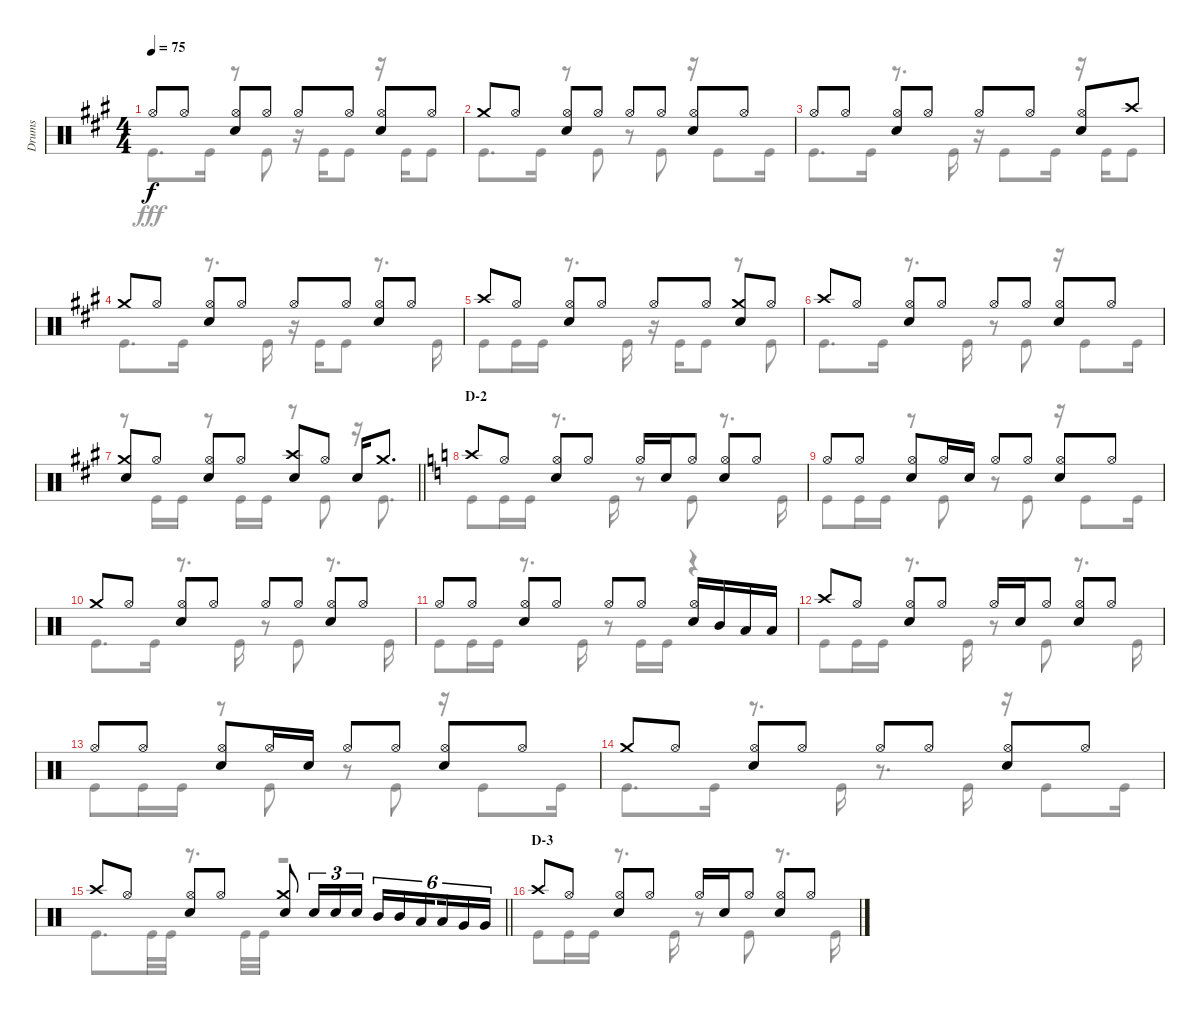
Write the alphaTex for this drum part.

\track ("Drums" "Drums") {instrument percussion}
\staff {score}
\articulation defaults
\voice
\ts (4 4)
\tempo 75
\clef neutral
\ks a "Hi-Hat (open)".8{dy f} "Hi-Hat (open)".8
("Hi-Hat (open)" "Snare (hit) 2").8 "Hi-Hat (open)".8 "Hi-Hat (open)".8 "Hi-Hat (open)".8 ("Hi-Hat (open)" "Snare (hit) 2").8 "Hi-Hat (open)".8 |
"Crash medium (hit)".8 "Hi-Hat (open)".8 ("Hi-Hat (open)" "Snare (hit) 2").8 "Hi-Hat (open)".8 "Hi-Hat (open)".8 "Hi-Hat (open)".8 ("Hi-Hat (open)" "Snare (hit) 2").8 "Hi-Hat (open)".8 |
"Hi-Hat (open)".8 "Hi-Hat (open)".8 ("Hi-Hat (open)" "Snare (hit) 2").8 "Hi-Hat (open)".8 "Hi-Hat (open)".8 "Hi-Hat (open)".8 ("Hi-Hat (open)" "Snare (hit) 2").8 "Crash high (hit)".8 |
"Crash medium (hit)".8 "Hi-Hat (open)".8 ("Hi-Hat (open)" "Snare (hit) 2").8 "Hi-Hat (open)".8 "Hi-Hat (open)".8 "Hi-Hat (open)".8 ("Hi-Hat (open)" "Snare (hit) 2").8 "Hi-Hat (open)".8 |
"Crash high (hit)".8 "Hi-Hat (open)".8 ("Hi-Hat (open)" "Snare (hit) 2").8 "Hi-Hat (open)".8 "Hi-Hat (open)".8 "Hi-Hat (open)".8 ("Crash medium (hit)" "Snare (hit) 2").8 "Hi-Hat (open)".8 |
"Crash high (hit)".8 "Hi-Hat (open)".8 ("Hi-Hat (open)" "Snare (hit) 2").8 "Hi-Hat (open)".8 "Hi-Hat (open)".8 "Hi-Hat (open)".8 ("Hi-Hat (open)" "Snare (hit) 2").8 "Hi-Hat (open)".8 |
\barLineRight lightlight
("Crash medium (hit)" "Snare (hit) 2").8 "Hi-Hat (open)".8 ("Hi-Hat (open)" "Snare (hit) 2").8 "Hi-Hat (open)".8 ("Crash high (hit)" "Snare (hit) 2").8 "Hi-Hat (open)".8 "Snare (hit) 2".16 "Crash medium (hit)".8{d} |
\section ("" "D-2")
\ks c "Crash high (hit)".8 "Hi-Hat (open)".8
("Hi-Hat (open)" "Snare (hit) 2").8 "Hi-Hat (open)".8 "Hi-Hat (open)".16 "Snare (hit) 2".16 "Hi-Hat (open)".8 ("Hi-Hat (open)" "Snare (hit) 2").8 "Hi-Hat (open)".8 |
"Hi-Hat (open)".8 "Hi-Hat (open)".8 ("Hi-Hat (open)" "Snare (hit) 2").8 "Hi-Hat (open)".16 "Snare (hit) 2".16 "Hi-Hat (open)".8 "Hi-Hat (open)".8 ("Hi-Hat (open)" "Snare (hit) 2").8 "Hi-Hat (open)".8 |
"Crash medium (hit)".8 "Hi-Hat (open)".8 ("Hi-Hat (open)" "Snare (hit) 2").8 "Hi-Hat (open)".8 "Hi-Hat (open)".8 "Hi-Hat (open)".8 ("Hi-Hat (open)" "Snare (hit) 2").8 "Hi-Hat (open)".8 |
"Hi-Hat (open)".8 "Hi-Hat (open)".8 ("Hi-Hat (open)" "Snare (hit) 2").8 "Hi-Hat (open)".8 "Hi-Hat (open)".8 "Hi-Hat (open)".8 ("Hi-Hat (open)" "Snare (hit) 2").16 "Mid Tom (hit)".16 "Low Tom (hit)".16 "Low Tom (hit)".16 |
"Crash high (hit)".8 "Hi-Hat (open)".8 ("Hi-Hat (open)" "Snare (hit) 2").8 "Hi-Hat (open)".8 "Hi-Hat (open)".16 "Snare (hit) 2".16 "Hi-Hat (open)".8 ("Hi-Hat (open)" "Snare (hit) 2").8 "Hi-Hat (open)".8 |
"Hi-Hat (open)".8 "Hi-Hat (open)".8 ("Hi-Hat (open)" "Snare (hit) 2").8 "Hi-Hat (open)".16 "Snare (hit) 2".16 "Hi-Hat (open)".8 "Hi-Hat (open)".8 ("Hi-Hat (open)" "Snare (hit) 2").8 "Hi-Hat (open)".8 |
"Crash medium (hit)".8 "Hi-Hat (open)".8 ("Hi-Hat (open)" "Snare (hit) 2").8 "Hi-Hat (open)".8 "Hi-Hat (open)".8 "Hi-Hat (open)".8 ("Hi-Hat (open)" "Snare (hit) 2").8 "Hi-Hat (open)".8 |
\barLineRight lightlight "Crash high (hit)".8 "Hi-Hat (open)".8
("Hi-Hat (open)" "Snare (hit) 2").8 "Hi-Hat (open)".8 ("Crash medium (hit)" "Snare (hit) 2").8 "Snare (hit) 2".16{tu (3 2)} "Snare (hit) 2".16{tu (3 2)} "Snare (hit) 2".16{tu (3 2)} "Mid Tom (hit)".16{tu (6 4)} "Mid Tom (hit)".16{tu (6 4)} "Low Tom (hit)".16{tu (6 4) beam splitsecondary} "Low Tom (hit)".16{tu (6 4)} "Very Low Tom (hit)".16{tu (6 4)} "Very Low Tom (hit)".16{tu (6 4)} |
\section ("" "D-3")
"Crash high (hit)".8 "Hi-Hat (open)".8 ("Hi-Hat (open)" "Snare (hit) 2").8 "Hi-Hat (open)".8 "Hi-Hat (open)".16 "Snare (hit) 2".16 "Hi-Hat (open)".8 ("Hi-Hat (open)" "Snare (hit) 2").8 "Hi-Hat (open)".8
\voice
\clef neutral
\ottava regular
\simile none
\ks a "Kick (hit)".8{d dy fff} "Kick (hit)".16
r.8 "Kick (hit)".8 r.16 "Kick (hit)".16 "Kick (hit)".8 r.16 "Kick (hit)".16 "Kick (hit)".8 |
"Kick (hit)".8{d} "Kick (hit)".16 r.8 "Kick (hit)".8 r.8 "Kick (hit)".8 r.16 "Kick (hit)".8 "Kick (hit)".16 |
"Kick (hit)".8{d} "Kick (hit)".16 r.8{d} "Kick (hit)".16 r.16 "Kick (hit)".8 "Kick (hit)".16 r.16 "Kick (hit)".16 "Kick (hit)".8 |
"Kick (hit)".8{d} "Kick (hit)".16 r.8{d} "Kick (hit)".16 r.16 "Kick (hit)".16 "Kick (hit)".8 r.8{d} "Kick (hit)".16 |
"Kick (hit)".8 "Kick (hit)".16 "Kick (hit)".16 r.8{d} "Kick (hit)".16 r.16 "Kick (hit)".16 "Kick (hit)".8 r.8 "Kick (hit)".8 |
"Kick (hit)".8{d} "Kick (hit)".16 r.8{d} "Kick (hit)".16 r.8 "Kick (hit)".8 r.16 "Kick (hit)".8 "Kick (hit)".16 |
\barLineRight lightlight
r.8 "Kick (hit)".16 "Kick (hit)".16 r.8 "Kick (hit)".16 "Kick (hit)".16 r.8 "Kick (hit)".8 r.16 "Kick (hit)".8{d} |
\ks c "Kick (hit)".8 "Kick (hit)".16 "Kick (hit)".16
r.8{d} "Kick (hit)".16 r.8 "Kick (hit)".8 r.8{d} "Kick (hit)".16 |
"Kick (hit)".8 "Kick (hit)".16 "Kick (hit)".16 r.8 "Kick (hit)".8 r.8 "Kick (hit)".8 r.16 "Kick (hit)".8 "Kick (hit)".16 |
"Kick (hit)".8{d} "Kick (hit)".16 r.8{d} "Kick (hit)".16 r.8 "Kick (hit)".8 r.8{d} "Kick (hit)".16 |
"Kick (hit)".8 "Kick (hit)".16 "Kick (hit)".16 r.8{d} "Kick (hit)".16 r.8 "Kick (hit)".16 "Kick (hit)".16 r.4 |
"Kick (hit)".8 "Kick (hit)".16 "Kick (hit)".16 r.8{d} "Kick (hit)".16 r.8 "Kick (hit)".8 r.8{d} "Kick (hit)".16 |
"Kick (hit)".8 "Kick (hit)".16 "Kick (hit)".16 r.8 "Kick (hit)".8 r.8 "Kick (hit)".8 r.16 "Kick (hit)".8 "Kick (hit)".16 |
"Kick (hit)".8{d} "Kick (hit)".16 r.8{d} "Kick (hit)".16 r.8{d} "Kick (hit)".16 r.16 "Kick (hit)".8 "Kick (hit)".16 |
\barLineRight lightlight "Kick (hit)".8{d} "Kick (hit)".32 "Kick (hit)".32
r.8{d} "Kick (hit)".32 "Kick (hit)".32 r.2 |
"Kick (hit)".8 "Kick (hit)".16 "Kick (hit)".16 r.8{d} "Kick (hit)".16 r.8 "Kick (hit)".8 r.8{d} "Kick (hit)".16
